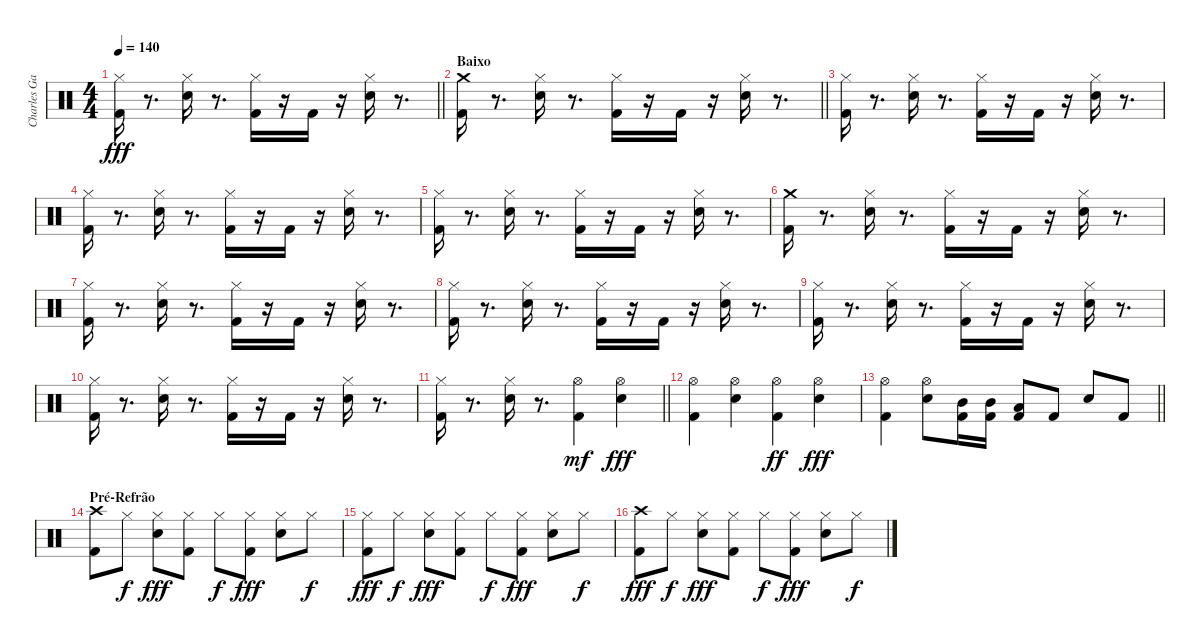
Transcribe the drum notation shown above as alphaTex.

\track ("Charles Gavin" "Charles Ga") {instrument percussion}
\staff {score}
\articulation defaults
\ts (4 4)
\tempo 140
\clef neutral
\barLineRight lightlight
\ks c
("Hi-Hat (closed)" "Kick (hit) 2").16{dy fff} r.8{d} ("Hi-Hat (closed)" "Snare (hit) 2").16 r.8{d} ("Kick (hit) 2" "Hi-Hat (closed)").16 r.16 "Kick (hit) 2".16 r.16 ("Hi-Hat (closed)" "Snare (hit) 2").16 r.8{d} |
\section ("" "Baixo")
\barLineRight lightlight
("Crash medium (hit)" "Kick (hit) 2").16 r.8{d} ("Hi-Hat (closed)" "Snare (hit) 2").16 r.8{d} ("Kick (hit) 2" "Hi-Hat (closed)").16 r.16 "Kick (hit) 2".16 r.16 ("Hi-Hat (closed)" "Snare (hit) 2").16 r.8{d} |
("Hi-Hat (closed)" "Kick (hit) 2").16 r.8{d} ("Hi-Hat (closed)" "Snare (hit) 2").16 r.8{d} ("Kick (hit) 2" "Hi-Hat (closed)").16 r.16 "Kick (hit) 2".16 r.16 ("Hi-Hat (closed)" "Snare (hit) 2").16 r.8{d} |
("Hi-Hat (closed)" "Kick (hit) 2").16 r.8{d} ("Hi-Hat (closed)" "Snare (hit) 2").16 r.8{d} ("Kick (hit) 2" "Hi-Hat (closed)").16 r.16 "Kick (hit) 2".16 r.16 ("Hi-Hat (closed)" "Snare (hit) 2").16 r.8{d} |
("Hi-Hat (closed)" "Kick (hit) 2").16 r.8{d} ("Hi-Hat (closed)" "Snare (hit) 2").16 r.8{d} ("Kick (hit) 2" "Hi-Hat (closed)").16 r.16 "Kick (hit) 2".16 r.16 ("Hi-Hat (closed)" "Snare (hit) 2").16 r.8{d} |
("Crash medium (hit)" "Kick (hit) 2").16 r.8{d} ("Hi-Hat (closed)" "Snare (hit) 2").16 r.8{d} ("Kick (hit) 2" "Hi-Hat (closed)").16 r.16 "Kick (hit) 2".16 r.16 ("Hi-Hat (closed)" "Snare (hit) 2").16 r.8{d} |
("Hi-Hat (closed)" "Kick (hit) 2").16 r.8{d} ("Hi-Hat (closed)" "Snare (hit) 2").16 r.8{d} ("Kick (hit) 2" "Hi-Hat (closed)").16 r.16 "Kick (hit) 2".16 r.16 ("Hi-Hat (closed)" "Snare (hit) 2").16 r.8{d} |
("Hi-Hat (closed)" "Kick (hit) 2").16 r.8{d} ("Hi-Hat (closed)" "Snare (hit) 2").16 r.8{d} ("Kick (hit) 2" "Hi-Hat (closed)").16 r.16 "Kick (hit) 2".16 r.16 ("Hi-Hat (closed)" "Snare (hit) 2").16 r.8{d} |
("Hi-Hat (closed)" "Kick (hit) 2").16 r.8{d} ("Hi-Hat (closed)" "Snare (hit) 2").16 r.8{d} ("Kick (hit) 2" "Hi-Hat (closed)").16 r.16 "Kick (hit) 2".16 r.16 ("Hi-Hat (closed)" "Snare (hit) 2").16 r.8{d} |
("Hi-Hat (closed)" "Kick (hit) 2").16 r.8{d} ("Hi-Hat (closed)" "Snare (hit) 2").16 r.8{d} ("Kick (hit) 2" "Hi-Hat (closed)").16 r.16 "Kick (hit) 2".16 r.16 ("Hi-Hat (closed)" "Snare (hit) 2").16 r.8{d} |
\barLineRight lightlight
("Hi-Hat (closed)" "Kick (hit) 2").16 r.8{d} ("Hi-Hat (closed)" "Snare (hit) 2").16 r.8{d} ("Kick (hit) 2" "Hi-Hat (open)").4{dy mf} ("Snare (hit) 2" "Hi-Hat (open)").4{dy fff} |
("Hi-Hat (open)" "Kick (hit) 2").4 ("Hi-Hat (open)" "Snare (hit) 2").4 ("Kick (hit) 2" "Hi-Hat (open)").4{dy ff} ("Hi-Hat (open)" "Snare (hit) 2").4{dy fff} |
\barLineRight lightlight
("Hi-Hat (open)" "Kick (hit) 2").4 ("Hi-Hat (open)" "Snare (hit) 2").8 ("Kick (hit) 2" "Mid Tom (hit)").16 ("Kick (hit) 2" "Mid Tom (hit)").16 ("Kick (hit) 2" "Low Tom (hit)").8 "Kick (hit) 2".8 "Snare (hit) 2".8 "Kick (hit) 2".8 |
\section ("" "Pré-Refrão")
("Crash high (hit)" "Kick (hit) 2").8 "Hi-Hat (closed)".8{dy f} ("Hi-Hat (closed)" "Snare (hit) 2").8{dy fff} ("Hi-Hat (closed)" "Kick (hit) 2").8 "Hi-Hat (closed)".8{dy f} ("Hi-Hat (closed)" "Kick (hit) 2").8{dy fff} ("Hi-Hat (closed)" "Snare (hit) 2").8 "Hi-Hat (closed)".8{dy f} |
("Hi-Hat (closed)" "Kick (hit) 2").8{dy fff} "Hi-Hat (closed)".8{dy f} ("Hi-Hat (closed)" "Snare (hit) 2").8{dy fff} ("Hi-Hat (closed)" "Kick (hit) 2").8 "Hi-Hat (closed)".8{dy f} ("Hi-Hat (closed)" "Kick (hit) 2").8{dy fff} ("Hi-Hat (closed)" "Snare (hit) 2").8 "Hi-Hat (closed)".8{dy f} |
("Crash high (hit)" "Kick (hit) 2").8{dy fff} "Hi-Hat (closed)".8{dy f} ("Hi-Hat (closed)" "Snare (hit) 2").8{dy fff} ("Hi-Hat (closed)" "Kick (hit) 2").8 "Hi-Hat (closed)".8{dy f} ("Hi-Hat (closed)" "Kick (hit) 2").8{dy fff} ("Hi-Hat (closed)" "Snare (hit) 2").8 "Hi-Hat (closed)".8{dy f}
